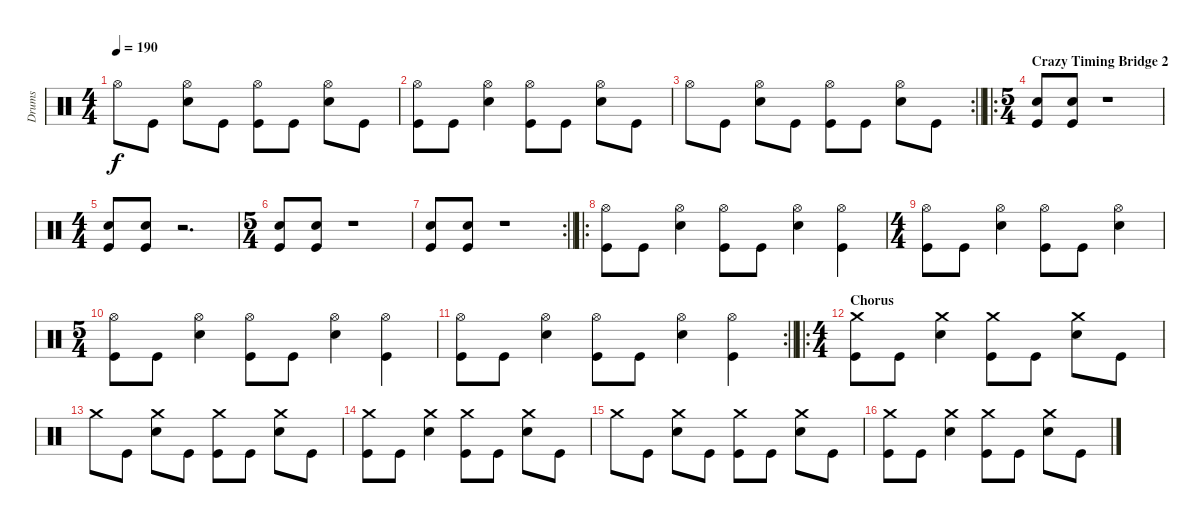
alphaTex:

\track ("Drums" "Drums") {instrument percussion}
\staff {score}
\articulation defaults
\ts (4 4)
\tempo 190
\clef neutral
\ks c "Hi-Hat (open)".8{dy f} "Kick (hit)".8
("Hi-Hat (open)" "Snare (hit) 2").8 "Kick (hit)".8 ("Hi-Hat (open)" "Kick (hit)").8 "Kick (hit)".8 ("Hi-Hat (open)" "Snare (hit) 2").8 "Kick (hit)".8 |
("Hi-Hat (open)" "Kick (hit)").8 "Kick (hit)".8 ("Hi-Hat (open)" "Snare (hit) 2").4 ("Hi-Hat (open)" "Kick (hit)").8 "Kick (hit)".8 ("Hi-Hat (open)" "Snare (hit) 2").8 "Kick (hit)".8 |
\rc 2
\barLineRight lightlight "Hi-Hat (open)".8 "Kick (hit)".8
("Hi-Hat (open)" "Snare (hit) 2").8 "Kick (hit)".8 ("Hi-Hat (open)" "Kick (hit)").8 "Kick (hit)".8 ("Hi-Hat (open)" "Snare (hit) 2").8 "Kick (hit)".8 |
\ro
\ts (5 4)
\section ("" "Crazy Timing Bridge 2")
("Snare (hit) 2" "Kick (hit)").8 ("Snare (hit) 2" "Kick (hit)").8 r.1 |
\ts (4 4)
("Snare (hit) 2" "Kick (hit)").8 ("Snare (hit) 2" "Kick (hit)").8 r.2{d} |
\ts (5 4)
("Snare (hit) 2" "Kick (hit)").8 ("Snare (hit) 2" "Kick (hit)").8 r.1 |
\rc 2
\barLineRight lightlight
("Snare (hit) 2" "Kick (hit)").8 ("Snare (hit) 2" "Kick (hit)").8 r.1 |
\ro
("Hi-Hat (open)" "Kick (hit)").8 "Kick (hit)".8 ("Hi-Hat (open)" "Snare (hit) 2").4 ("Hi-Hat (open)" "Kick (hit)").8 "Kick (hit)".8 ("Hi-Hat (open)" "Snare (hit) 2").4 ("Hi-Hat (open)" "Kick (hit)").4 |
\ts (4 4)
("Hi-Hat (open)" "Kick (hit)").8 "Kick (hit)".8 ("Hi-Hat (open)" "Snare (hit) 2").4 ("Hi-Hat (open)" "Kick (hit)").8 "Kick (hit)".8 ("Hi-Hat (open)" "Snare (hit) 2").4 |
\ts (5 4)
("Hi-Hat (open)" "Kick (hit)").8 "Kick (hit)".8 ("Hi-Hat (open)" "Snare (hit) 2").4 ("Hi-Hat (open)" "Kick (hit)").8 "Kick (hit)".8 ("Hi-Hat (open)" "Snare (hit) 2").4 ("Hi-Hat (open)" "Kick (hit)").4 |
\rc 2
\barLineRight lightlight
("Hi-Hat (open)" "Kick (hit)").8 "Kick (hit)".8 ("Hi-Hat (open)" "Snare (hit) 2").4 ("Hi-Hat (open)" "Kick (hit)").8 "Kick (hit)".8 ("Hi-Hat (open)" "Snare (hit) 2").4 ("Hi-Hat (open)" "Kick (hit)").4 |
\ro
\ts (4 4)
\section ("" "Chorus")
("Crash medium (hit)" "Kick (hit)").8 "Kick (hit)".8 ("Crash medium (hit)" "Snare (hit) 2").4 ("Crash medium (hit)" "Kick (hit)").8 "Kick (hit)".8 ("Crash medium (hit)" "Snare (hit) 2").8 "Kick (hit)".8 |
"Crash medium (hit)".8 "Kick (hit)".8 ("Crash medium (hit)" "Snare (hit) 2").8 "Kick (hit)".8 ("Crash medium (hit)" "Kick (hit)").8 "Kick (hit)".8 ("Crash medium (hit)" "Snare (hit) 2").8 "Kick (hit)".8 |
("Crash medium (hit)" "Kick (hit)").8 "Kick (hit)".8 ("Crash medium (hit)" "Snare (hit) 2").4 ("Crash medium (hit)" "Kick (hit)").8 "Kick (hit)".8 ("Crash medium (hit)" "Snare (hit) 2").8 "Kick (hit)".8 |
"Crash medium (hit)".8 "Kick (hit)".8 ("Crash medium (hit)" "Snare (hit) 2").8 "Kick (hit)".8 ("Crash medium (hit)" "Kick (hit)").8 "Kick (hit)".8 ("Crash medium (hit)" "Snare (hit) 2").8 "Kick (hit)".8 |
("Crash medium (hit)" "Kick (hit)").8 "Kick (hit)".8 ("Crash medium (hit)" "Snare (hit) 2").4 ("Crash medium (hit)" "Kick (hit)").8 "Kick (hit)".8 ("Crash medium (hit)" "Snare (hit) 2").8 "Kick (hit)".8
